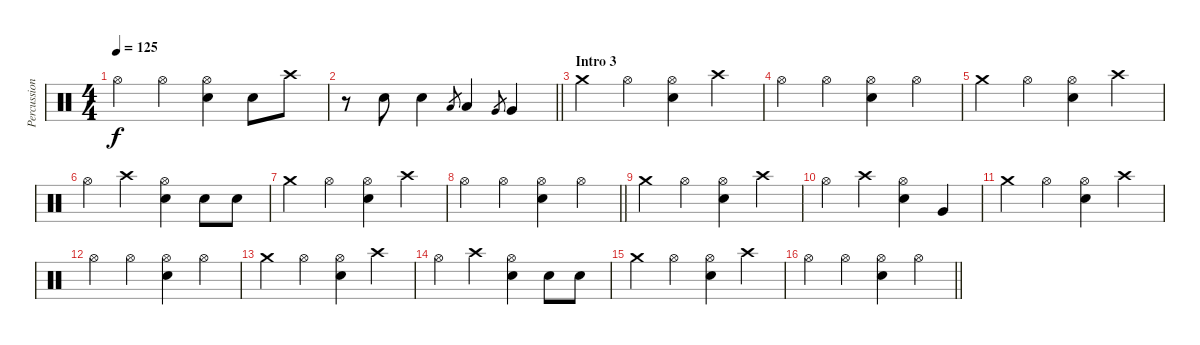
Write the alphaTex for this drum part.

\track ("Percussion" "Percussion") {instrument percussion}
\staff {score}
\articulation defaults
\ts (4 4)
\tempo 125
\clef neutral
\ks c "Hi-Hat (open)".4{dy f} "Hi-Hat (open)".4
("Hi-Hat (open)" "Snare (hit) 2").4 "Snare (hit) 2".8 "Crash high (hit)".8 |
\barLineRight lightlight
r.8 "Snare (hit) 2".8 "Snare (hit) 2".4 "Low Tom (hit)".8{gr} "Low Tom (hit)".4 "Very Low Tom (hit)".8{gr} "Very Low Tom (hit)".4 |
\section ("" "Intro 3")
"Crash medium (hit)".4 "Hi-Hat (open)".4 ("Hi-Hat (open)" "Snare (hit) 2").4 "Crash high (hit)".4 |
"Hi-Hat (open)".4 "Hi-Hat (open)".4 ("Hi-Hat (open)" "Snare (hit) 2").4 "Hi-Hat (open)".4 |
"Crash medium (hit)".4 "Hi-Hat (open)".4 ("Hi-Hat (open)" "Snare (hit) 2").4 "Crash high (hit)".4 |
"Hi-Hat (open)".4 "Crash high (hit)".4 ("Hi-Hat (open)" "Snare (hit) 2").4 "Snare (hit) 2".8 "Snare (hit) 2".8 |
"Crash medium (hit)".4 "Hi-Hat (open)".4 ("Hi-Hat (open)" "Snare (hit) 2").4 "Crash high (hit)".4 |
\barLineRight lightlight "Hi-Hat (open)".4 "Hi-Hat (open)".4
("Hi-Hat (open)" "Snare (hit) 2").4 "Hi-Hat (open)".4 |
"Crash medium (hit)".4 "Hi-Hat (open)".4 ("Hi-Hat (open)" "Snare (hit) 2").4 "Crash high (hit)".4 |
"Hi-Hat (open)".4 "Crash high (hit)".4 ("Hi-Hat (open)" "Snare (hit) 2").4 "Very Low Tom (hit)".4 |
"Crash medium (hit)".4 "Hi-Hat (open)".4 ("Hi-Hat (open)" "Snare (hit) 2").4 "Crash high (hit)".4 |
"Hi-Hat (open)".4 "Hi-Hat (open)".4 ("Hi-Hat (open)" "Snare (hit) 2").4 "Hi-Hat (open)".4 |
"Crash medium (hit)".4 "Hi-Hat (open)".4 ("Hi-Hat (open)" "Snare (hit) 2").4 "Crash high (hit)".4 |
"Hi-Hat (open)".4 "Crash high (hit)".4 ("Hi-Hat (open)" "Snare (hit) 2").4 "Snare (hit) 2".8 "Snare (hit) 2".8 |
"Crash medium (hit)".4 "Hi-Hat (open)".4 ("Hi-Hat (open)" "Snare (hit) 2").4 "Crash high (hit)".4 |
\barLineRight lightlight "Hi-Hat (open)".4 "Hi-Hat (open)".4
("Hi-Hat (open)" "Snare (hit) 2").4 "Hi-Hat (open)".4
